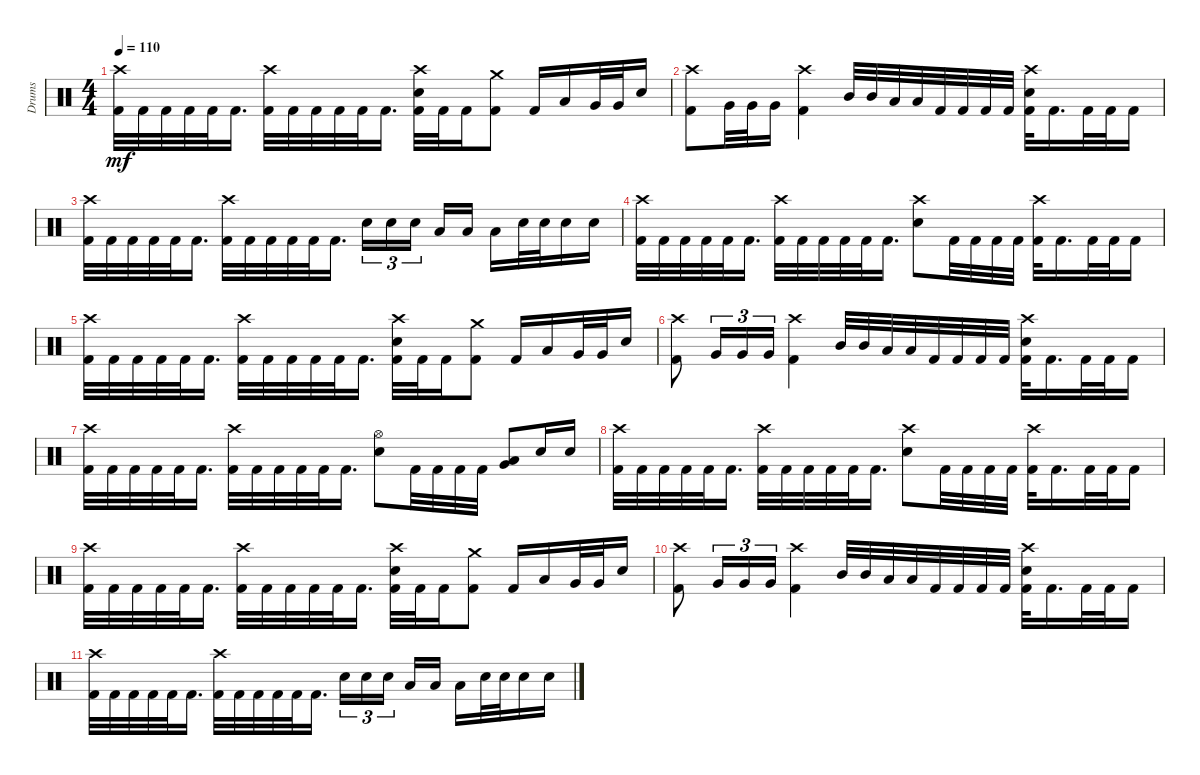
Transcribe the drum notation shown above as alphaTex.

\track ("Drums" "Drums") {instrument percussion}
\staff {score}
\articulation defaults
\ts (4 4)
\tempo 110
\clef neutral
\ks c
("Crash high (hit)" "Kick (hit) 2").32{dy mf} "Kick (hit) 2".32 "Kick (hit) 2".32 "Kick (hit) 2".32 "Kick (hit) 2".32 "Kick (hit) 2".16{d} ("Crash high (hit)" "Kick (hit) 2").32 "Kick (hit) 2".32 "Kick (hit) 2".32 "Kick (hit) 2".32 "Kick (hit) 2".32 "Kick (hit) 2".16{d} ("Crash high (hit)" "Electric Snare (hit)" "Kick (hit) 2").32 "Kick (hit) 2".32 "Kick (hit) 2".16 ("Crash medium (hit)" "Kick (hit) 2").8 "Kick (hit) 2".16 "Low Tom (hit)".16 "Very Low Tom (hit)".32 "Very Low Tom (hit)".32 "Electric Snare (hit)".16 |
("Crash high (hit)" "Kick (hit) 2").8 "Very Low Tom (hit)".32 "Very Low Tom (hit)".32 "Very Low Tom (hit)".16 ("Crash high (hit)" "Kick (hit) 2").4 "Mid Tom (hit)".32 "Mid Tom (hit)".32 "Low Tom (hit)".32 "Low Tom (hit)".32 "Kick (hit) 2".32 "Kick (hit) 2".32 "Kick (hit) 2".32 "Kick (hit) 2".32 ("Crash high (hit)" "Electric Snare (hit)" "Kick (hit) 2").32 "Kick (hit) 2".16{d} "Kick (hit) 2".32 "Kick (hit) 2".32 "Kick (hit) 2".16 |
("Crash high (hit)" "Kick (hit) 2").32 "Kick (hit) 2".32 "Kick (hit) 2".32 "Kick (hit) 2".32 "Kick (hit) 2".32 "Kick (hit) 2".16{d} ("Crash high (hit)" "Kick (hit) 2").32 "Kick (hit) 2".32 "Kick (hit) 2".32 "Kick (hit) 2".32 "Kick (hit) 2".32 "Kick (hit) 2".16{d} "Electric Snare (hit)".16{tu (3 2)} "Electric Snare (hit)".16{tu (3 2)} "Electric Snare (hit)".16{tu (3 2) beam splitsecondary} "Low Tom (hit)".16 "Low Floor Tom (hit)".16 "Low Tom (hit)".16 "Electric Snare (hit)".32 "Electric Snare (hit)".32 "Electric Snare (hit)".16 "Electric Snare (hit)".16 |
("Crash high (hit)" "Kick (hit) 2").32 "Kick (hit) 2".32 "Kick (hit) 2".32 "Kick (hit) 2".32 "Kick (hit) 2".32 "Kick (hit) 2".16{d} ("Crash high (hit)" "Kick (hit) 2").32 "Kick (hit) 2".32 "Kick (hit) 2".32 "Kick (hit) 2".32 "Kick (hit) 2".32 "Kick (hit) 2".16{d} ("Crash high (hit)" "Electric Snare (hit)").8 "Kick (hit) 2".32 "Kick (hit) 2".32 "Kick (hit) 2".32 "Kick (hit) 2".32 ("Crash high (hit)" "Kick (hit) 2").32 "Kick (hit) 2".16{d} "Kick (hit) 2".32 "Kick (hit) 2".32 "Kick (hit) 2".16 |
("Crash high (hit)" "Kick (hit) 2").32 "Kick (hit) 2".32 "Kick (hit) 2".32 "Kick (hit) 2".32 "Kick (hit) 2".32 "Kick (hit) 2".16{d} ("Crash high (hit)" "Kick (hit) 2").32 "Kick (hit) 2".32 "Kick (hit) 2".32 "Kick (hit) 2".32 "Kick (hit) 2".32 "Kick (hit) 2".16{d} ("Crash high (hit)" "Electric Snare (hit)" "Kick (hit) 2").32 "Kick (hit) 2".32 "Kick (hit) 2".16 ("Crash medium (hit)" "Kick (hit) 2").8 "Kick (hit) 2".16 "Low Tom (hit)".16 "Very Low Tom (hit)".32 "Very Low Tom (hit)".32 "Electric Snare (hit)".16 |
("Crash high (hit)" "Kick (hit) 2").8 "Very Low Tom (hit)".16{tu (3 2)} "Very Low Tom (hit)".16{tu (3 2)} "Very Low Tom (hit)".16{tu (3 2)} ("Crash high (hit)" "Kick (hit) 2").4 "Mid Tom (hit)".32 "Mid Tom (hit)".32 "Low Tom (hit)".32 "Low Tom (hit)".32 "Kick (hit) 2".32 "Kick (hit) 2".32 "Kick (hit) 2".32 "Kick (hit) 2".32 ("Crash high (hit)" "Electric Snare (hit)" "Kick (hit) 2").32 "Kick (hit) 2".16{d} "Kick (hit) 2".32 "Kick (hit) 2".32 "Kick (hit) 2".16 |
("Crash high (hit)" "Kick (hit) 2").32 "Kick (hit) 2".32 "Kick (hit) 2".32 "Kick (hit) 2".32 "Kick (hit) 2".32 "Kick (hit) 2".16{d} ("Crash high (hit)" "Kick (hit) 2").32 "Kick (hit) 2".32 "Kick (hit) 2".32 "Kick (hit) 2".32 "Kick (hit) 2".32 "Kick (hit) 2".16{d} ("Hi-Hat (open)" "Electric Snare (hit)").8 "Kick (hit) 2".32 "Kick (hit) 2".32 "Kick (hit) 2".32 "Kick (hit) 2".32 ("Very Low Tom (hit)" "Low Tom (hit)").8 "Electric Snare (hit)".16 "Electric Snare (hit)".16 |
("Crash high (hit)" "Kick (hit) 2").32 "Kick (hit) 2".32 "Kick (hit) 2".32 "Kick (hit) 2".32 "Kick (hit) 2".32 "Kick (hit) 2".16{d} ("Crash high (hit)" "Kick (hit) 2").32 "Kick (hit) 2".32 "Kick (hit) 2".32 "Kick (hit) 2".32 "Kick (hit) 2".32 "Kick (hit) 2".16{d} ("Crash high (hit)" "Electric Snare (hit)").8 "Kick (hit) 2".32 "Kick (hit) 2".32 "Kick (hit) 2".32 "Kick (hit) 2".32 ("Crash high (hit)" "Kick (hit) 2").32 "Kick (hit) 2".16{d} "Kick (hit) 2".32 "Kick (hit) 2".32 "Kick (hit) 2".16 |
("Crash high (hit)" "Kick (hit) 2").32 "Kick (hit) 2".32 "Kick (hit) 2".32 "Kick (hit) 2".32 "Kick (hit) 2".32 "Kick (hit) 2".16{d} ("Crash high (hit)" "Kick (hit) 2").32 "Kick (hit) 2".32 "Kick (hit) 2".32 "Kick (hit) 2".32 "Kick (hit) 2".32 "Kick (hit) 2".16{d} ("Crash high (hit)" "Electric Snare (hit)" "Kick (hit) 2").32 "Kick (hit) 2".32 "Kick (hit) 2".16 ("Crash medium (hit)" "Kick (hit) 2").8 "Kick (hit) 2".16 "Low Tom (hit)".16 "Very Low Tom (hit)".32 "Very Low Tom (hit)".32 "Electric Snare (hit)".16 |
("Crash high (hit)" "Kick (hit) 2").8 "Very Low Tom (hit)".16{tu (3 2)} "Very Low Tom (hit)".16{tu (3 2)} "Very Low Tom (hit)".16{tu (3 2)} ("Crash high (hit)" "Kick (hit) 2").4 "Mid Tom (hit)".32 "Mid Tom (hit)".32 "Low Tom (hit)".32 "Low Tom (hit)".32 "Kick (hit) 2".32 "Kick (hit) 2".32 "Kick (hit) 2".32 "Kick (hit) 2".32 ("Crash high (hit)" "Electric Snare (hit)" "Kick (hit) 2").32 "Kick (hit) 2".16{d} "Kick (hit) 2".32 "Kick (hit) 2".32 "Kick (hit) 2".16 |
("Crash high (hit)" "Kick (hit) 2").32 "Kick (hit) 2".32 "Kick (hit) 2".32 "Kick (hit) 2".32 "Kick (hit) 2".32 "Kick (hit) 2".16{d} ("Crash high (hit)" "Kick (hit) 2").32 "Kick (hit) 2".32 "Kick (hit) 2".32 "Kick (hit) 2".32 "Kick (hit) 2".32 "Kick (hit) 2".16{d} "Electric Snare (hit)".16{tu (3 2)} "Electric Snare (hit)".16{tu (3 2)} "Electric Snare (hit)".16{tu (3 2) beam splitsecondary} "Low Tom (hit)".16 "Low Floor Tom (hit)".16 "Low Tom (hit)".16 "Electric Snare (hit)".32 "Electric Snare (hit)".32 "Electric Snare (hit)".16 "Electric Snare (hit)".16
